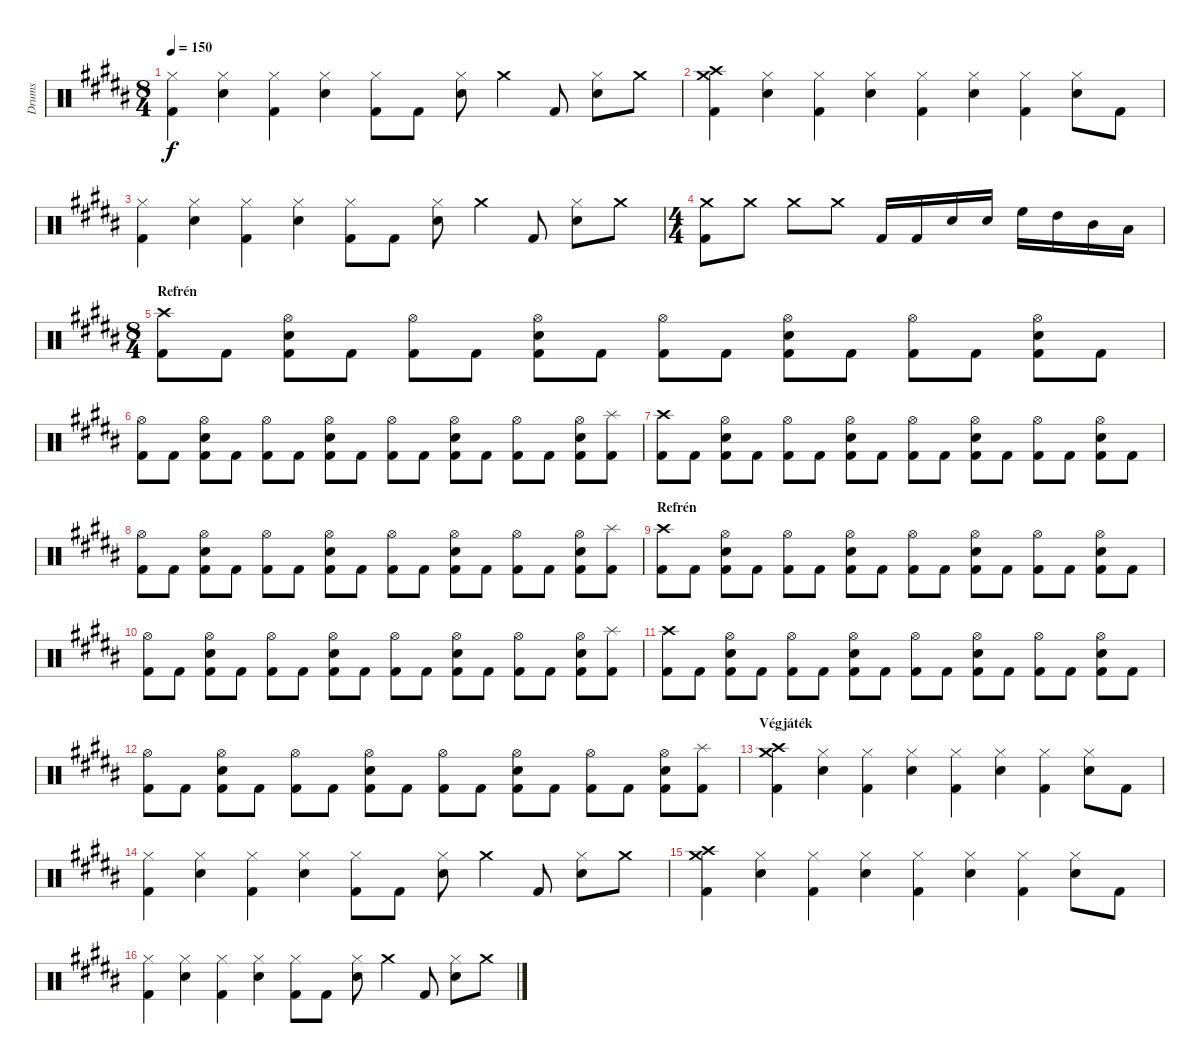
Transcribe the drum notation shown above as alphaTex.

\track ("Drums" "Drums") {instrument percussion}
\staff {score}
\articulation defaults
\ts (8 4)
\tempo 150
\clef neutral
\ks g#minor
("Hi-Hat (closed)" "Kick (hit) 2").4{dy f} ("Hi-Hat (closed)" "Snare (hit) 2").4 ("Hi-Hat (closed)" "Kick (hit) 2").4 ("Hi-Hat (closed)" "Snare (hit) 2").4 ("Hi-Hat (closed)" "Kick (hit) 2").8 "Kick (hit) 2".8 ("Hi-Hat (closed)" "Snare (hit) 2").8 "Crash medium (hit)".4 "Kick (hit) 2".8 ("Hi-Hat (closed)" "Snare (hit) 2").8 "Crash medium (hit)".8 |
("Crash medium (hit)" "Crash high (hit)" "Kick (hit) 2").4 ("Hi-Hat (closed)" "Snare (hit) 2").4 ("Hi-Hat (closed)" "Kick (hit) 2").4 ("Hi-Hat (closed)" "Snare (hit) 2").4 ("Hi-Hat (closed)" "Kick (hit) 2").4 ("Hi-Hat (closed)" "Snare (hit) 2").4 ("Hi-Hat (closed)" "Kick (hit) 2").4 ("Hi-Hat (closed)" "Snare (hit) 2").8 "Kick (hit) 2".8 |
("Hi-Hat (closed)" "Kick (hit) 2").4 ("Hi-Hat (closed)" "Snare (hit) 2").4 ("Hi-Hat (closed)" "Kick (hit) 2").4 ("Hi-Hat (closed)" "Snare (hit) 2").4 ("Hi-Hat (closed)" "Kick (hit) 2").8 "Kick (hit) 2".8 ("Hi-Hat (closed)" "Snare (hit) 2").8 "Crash medium (hit)".4 "Kick (hit) 2".8 ("Hi-Hat (closed)" "Snare (hit) 2").8 "Crash medium (hit)".8 |
\ts (4 4)
("Crash medium (hit)" "Kick (hit) 2").8 "Crash medium (hit)".8 "Crash medium (hit)".8 "Crash medium (hit)".8 "Kick (hit) 2".16 "Kick (hit) 2".16 "Snare (hit) 2".16 "Snare (hit) 2".16 "High Floor Tom (hit)".16 "High Tom (hit)".16 "Mid Tom (hit)".16 "Low Tom (hit)".16 |
\ts (8 4)
\section ("" "Refrén")
("Crash high (hit)" "Kick (hit) 2").8 "Kick (hit) 2".8 ("Hi-Hat (open)" "Snare (hit) 2" "Kick (hit) 2").8 "Kick (hit) 2".8 ("Hi-Hat (open)" "Kick (hit) 2").8 "Kick (hit) 2".8 ("Hi-Hat (open)" "Snare (hit) 2" "Kick (hit) 2").8 "Kick (hit) 2".8 ("Hi-Hat (open)" "Kick (hit) 2").8 "Kick (hit) 2".8 ("Hi-Hat (open)" "Snare (hit) 2" "Kick (hit) 2").8 "Kick (hit) 2".8 ("Hi-Hat (open)" "Kick (hit) 2").8 "Kick (hit) 2".8 ("Hi-Hat (open)" "Snare (hit) 2" "Kick (hit) 2").8 "Kick (hit) 2".8 |
("Hi-Hat (open)" "Kick (hit) 2").8 "Kick (hit) 2".8 ("Hi-Hat (open)" "Snare (hit) 2" "Kick (hit) 2").8 "Kick (hit) 2".8 ("Hi-Hat (open)" "Kick (hit) 2").8 "Kick (hit) 2".8 ("Hi-Hat (open)" "Snare (hit) 2" "Kick (hit) 2").8 "Kick (hit) 2".8 ("Hi-Hat (open)" "Kick (hit) 2").8 "Kick (hit) 2".8 ("Hi-Hat (open)" "Snare (hit) 2" "Kick (hit) 2").8 "Kick (hit) 2".8 ("Hi-Hat (open)" "Kick (hit) 2").8 "Kick (hit) 2".8 ("Hi-Hat (open)" "Snare (hit) 2" "Kick (hit) 2").8 ("Splash (hit)" "Kick (hit) 2").8 |
("Crash high (hit)" "Kick (hit) 2").8 "Kick (hit) 2".8 ("Hi-Hat (open)" "Snare (hit) 2" "Kick (hit) 2").8 "Kick (hit) 2".8 ("Hi-Hat (open)" "Kick (hit) 2").8 "Kick (hit) 2".8 ("Hi-Hat (open)" "Snare (hit) 2" "Kick (hit) 2").8 "Kick (hit) 2".8 ("Hi-Hat (open)" "Kick (hit) 2").8 "Kick (hit) 2".8 ("Hi-Hat (open)" "Snare (hit) 2" "Kick (hit) 2").8 "Kick (hit) 2".8 ("Hi-Hat (open)" "Kick (hit) 2").8 "Kick (hit) 2".8 ("Hi-Hat (open)" "Snare (hit) 2" "Kick (hit) 2").8 "Kick (hit) 2".8 |
("Hi-Hat (open)" "Kick (hit) 2").8 "Kick (hit) 2".8 ("Hi-Hat (open)" "Snare (hit) 2" "Kick (hit) 2").8 "Kick (hit) 2".8 ("Hi-Hat (open)" "Kick (hit) 2").8 "Kick (hit) 2".8 ("Hi-Hat (open)" "Snare (hit) 2" "Kick (hit) 2").8 "Kick (hit) 2".8 ("Hi-Hat (open)" "Kick (hit) 2").8 "Kick (hit) 2".8 ("Hi-Hat (open)" "Snare (hit) 2" "Kick (hit) 2").8 "Kick (hit) 2".8 ("Hi-Hat (open)" "Kick (hit) 2").8 "Kick (hit) 2".8 ("Hi-Hat (open)" "Snare (hit) 2" "Kick (hit) 2").8 ("Splash (hit)" "Kick (hit) 2").8 |
\section ("" "Refrén")
("Crash high (hit)" "Kick (hit) 2").8 "Kick (hit) 2".8 ("Hi-Hat (open)" "Snare (hit) 2" "Kick (hit) 2").8 "Kick (hit) 2".8 ("Hi-Hat (open)" "Kick (hit) 2").8 "Kick (hit) 2".8 ("Hi-Hat (open)" "Snare (hit) 2" "Kick (hit) 2").8 "Kick (hit) 2".8 ("Hi-Hat (open)" "Kick (hit) 2").8 "Kick (hit) 2".8 ("Hi-Hat (open)" "Snare (hit) 2" "Kick (hit) 2").8 "Kick (hit) 2".8 ("Hi-Hat (open)" "Kick (hit) 2").8 "Kick (hit) 2".8 ("Hi-Hat (open)" "Snare (hit) 2" "Kick (hit) 2").8 "Kick (hit) 2".8 |
("Hi-Hat (open)" "Kick (hit) 2").8 "Kick (hit) 2".8 ("Hi-Hat (open)" "Snare (hit) 2" "Kick (hit) 2").8 "Kick (hit) 2".8 ("Hi-Hat (open)" "Kick (hit) 2").8 "Kick (hit) 2".8 ("Hi-Hat (open)" "Snare (hit) 2" "Kick (hit) 2").8 "Kick (hit) 2".8 ("Hi-Hat (open)" "Kick (hit) 2").8 "Kick (hit) 2".8 ("Hi-Hat (open)" "Snare (hit) 2" "Kick (hit) 2").8 "Kick (hit) 2".8 ("Hi-Hat (open)" "Kick (hit) 2").8 "Kick (hit) 2".8 ("Hi-Hat (open)" "Snare (hit) 2" "Kick (hit) 2").8 ("Splash (hit)" "Kick (hit) 2").8 |
("Crash high (hit)" "Kick (hit) 2").8 "Kick (hit) 2".8 ("Hi-Hat (open)" "Snare (hit) 2" "Kick (hit) 2").8 "Kick (hit) 2".8 ("Hi-Hat (open)" "Kick (hit) 2").8 "Kick (hit) 2".8 ("Hi-Hat (open)" "Snare (hit) 2" "Kick (hit) 2").8 "Kick (hit) 2".8 ("Hi-Hat (open)" "Kick (hit) 2").8 "Kick (hit) 2".8 ("Hi-Hat (open)" "Snare (hit) 2" "Kick (hit) 2").8 "Kick (hit) 2".8 ("Hi-Hat (open)" "Kick (hit) 2").8 "Kick (hit) 2".8 ("Hi-Hat (open)" "Snare (hit) 2" "Kick (hit) 2").8 "Kick (hit) 2".8 |
("Hi-Hat (open)" "Kick (hit) 2").8 "Kick (hit) 2".8 ("Hi-Hat (open)" "Snare (hit) 2" "Kick (hit) 2").8 "Kick (hit) 2".8 ("Hi-Hat (open)" "Kick (hit) 2").8 "Kick (hit) 2".8 ("Hi-Hat (open)" "Snare (hit) 2" "Kick (hit) 2").8 "Kick (hit) 2".8 ("Hi-Hat (open)" "Kick (hit) 2").8 "Kick (hit) 2".8 ("Hi-Hat (open)" "Snare (hit) 2" "Kick (hit) 2").8 "Kick (hit) 2".8 ("Hi-Hat (open)" "Kick (hit) 2").8 "Kick (hit) 2".8 ("Hi-Hat (open)" "Snare (hit) 2" "Kick (hit) 2").8 ("Splash (hit)" "Kick (hit) 2").8 |
\section ("" "Végjáték")
("Crash medium (hit)" "Crash high (hit)" "Kick (hit) 2").4 ("Hi-Hat (closed)" "Snare (hit) 2").4 ("Hi-Hat (closed)" "Kick (hit) 2").4 ("Hi-Hat (closed)" "Snare (hit) 2").4 ("Hi-Hat (closed)" "Kick (hit) 2").4 ("Hi-Hat (closed)" "Snare (hit) 2").4 ("Hi-Hat (closed)" "Kick (hit) 2").4 ("Hi-Hat (closed)" "Snare (hit) 2").8 "Kick (hit) 2".8 |
("Hi-Hat (closed)" "Kick (hit) 2").4 ("Hi-Hat (closed)" "Snare (hit) 2").4 ("Hi-Hat (closed)" "Kick (hit) 2").4 ("Hi-Hat (closed)" "Snare (hit) 2").4 ("Hi-Hat (closed)" "Kick (hit) 2").8 "Kick (hit) 2".8 ("Hi-Hat (closed)" "Snare (hit) 2").8 "Crash medium (hit)".4 "Kick (hit) 2".8 ("Hi-Hat (closed)" "Snare (hit) 2").8 "Crash medium (hit)".8 |
("Crash medium (hit)" "Crash high (hit)" "Kick (hit) 2").4 ("Hi-Hat (closed)" "Snare (hit) 2").4 ("Hi-Hat (closed)" "Kick (hit) 2").4 ("Hi-Hat (closed)" "Snare (hit) 2").4 ("Hi-Hat (closed)" "Kick (hit) 2").4 ("Hi-Hat (closed)" "Snare (hit) 2").4 ("Hi-Hat (closed)" "Kick (hit) 2").4 ("Hi-Hat (closed)" "Snare (hit) 2").8 "Kick (hit) 2".8 |
("Hi-Hat (closed)" "Kick (hit) 2").4 ("Hi-Hat (closed)" "Snare (hit) 2").4 ("Hi-Hat (closed)" "Kick (hit) 2").4 ("Hi-Hat (closed)" "Snare (hit) 2").4 ("Hi-Hat (closed)" "Kick (hit) 2").8 "Kick (hit) 2".8 ("Hi-Hat (closed)" "Snare (hit) 2").8 "Crash medium (hit)".4 "Kick (hit) 2".8 ("Hi-Hat (closed)" "Snare (hit) 2").8 "Crash medium (hit)".8
